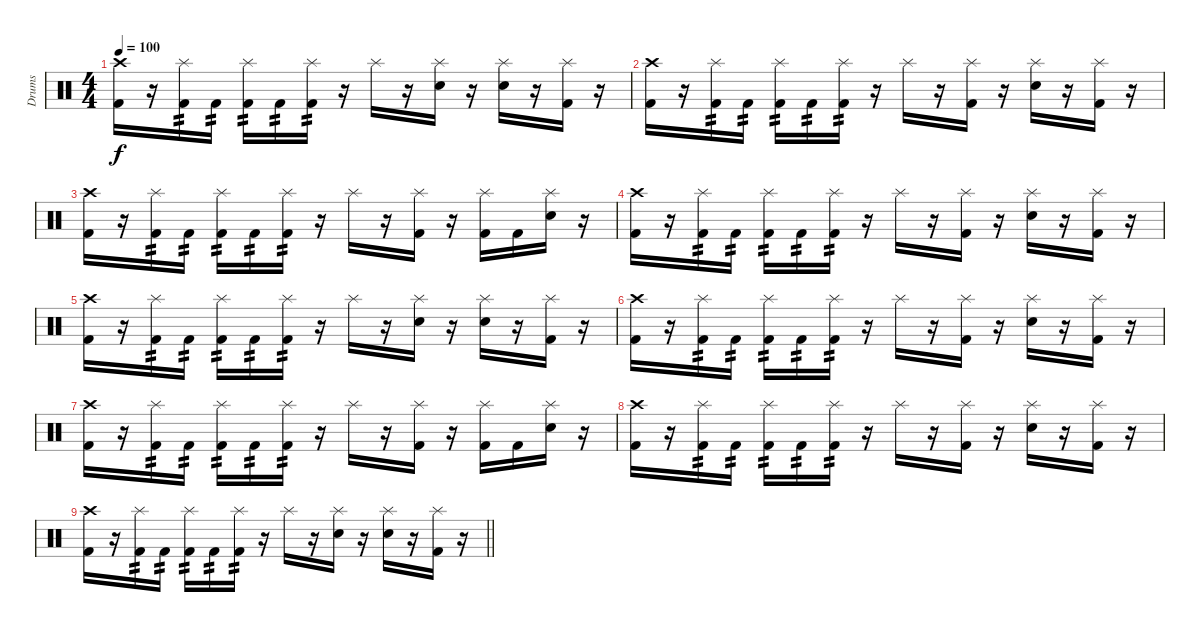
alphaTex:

\track ("Drums" "Drums") {instrument percussion}
\staff {score}
\articulation defaults
\ts (4 4)
\tempo 100
\clef neutral
\ks c
("Crash high (hit)" "Kick (hit) 2").16{dy f} r.16 ("Splash (hit)" "Kick (hit) 2").16{tp 2} "Kick (hit) 2".16{tp 2} ("Splash (hit)" "Kick (hit) 2").16{tp 2} "Kick (hit) 2".16{tp 2} ("Splash (hit)" "Kick (hit) 2").16{tp 2} r.16 "Splash (hit)".16 r.16 ("Splash (hit)" "Electric Snare (hit)").16 r.16 ("Splash (hit)" "Electric Snare (hit)").16 r.16 ("Splash (hit)" "Kick (hit) 2").16 r.16 |
("Crash high (hit)" "Kick (hit) 2").16{volume 0} r.16 ("Splash (hit)" "Kick (hit) 2").16{tp 2} "Kick (hit) 2".16{tp 2} ("Splash (hit)" "Kick (hit) 2").16{tp 2} "Kick (hit) 2".16{tp 2} ("Splash (hit)" "Kick (hit) 2").16{tp 2} r.16 "Splash (hit)".16 r.16 ("Splash (hit)" "Kick (hit) 2").16 r.16 ("Splash (hit)" "Electric Snare (hit)").16 r.16 ("Splash (hit)" "Kick (hit) 2").16 r.16 |
("Crash high (hit)" "Kick (hit) 2").16 r.16 ("Splash (hit)" "Kick (hit) 2").16{tp 2} "Kick (hit) 2".16{tp 2} ("Splash (hit)" "Kick (hit) 2").16{tp 2} "Kick (hit) 2".16{tp 2} ("Splash (hit)" "Kick (hit) 2").16{tp 2} r.16 "Splash (hit)".16 r.16 ("Splash (hit)" "Kick (hit) 2").16 r.16 ("Splash (hit)" "Kick (hit) 2").16 "Kick (hit) 2".16 ("Splash (hit)" "Electric Snare (hit)").16 r.16 |
("Crash high (hit)" "Kick (hit) 2").16 r.16 ("Splash (hit)" "Kick (hit) 2").16{tp 2} "Kick (hit) 2".16{tp 2} ("Splash (hit)" "Kick (hit) 2").16{tp 2} "Kick (hit) 2".16{tp 2} ("Splash (hit)" "Kick (hit) 2").16{tp 2} r.16 "Splash (hit)".16 r.16 ("Splash (hit)" "Kick (hit) 2").16 r.16 ("Splash (hit)" "Electric Snare (hit)").16 r.16 ("Splash (hit)" "Kick (hit) 2").16 r.16 |
("Crash high (hit)" "Kick (hit) 2").16 r.16 ("Splash (hit)" "Kick (hit) 2").16{tp 2} "Kick (hit) 2".16{tp 2} ("Splash (hit)" "Kick (hit) 2").16{tp 2} "Kick (hit) 2".16{tp 2} ("Splash (hit)" "Kick (hit) 2").16{tp 2} r.16 "Splash (hit)".16 r.16 ("Splash (hit)" "Electric Snare (hit)").16 r.16 ("Splash (hit)" "Electric Snare (hit)").16 r.16 ("Splash (hit)" "Kick (hit) 2").16 r.16 |
("Crash high (hit)" "Kick (hit) 2").16 r.16 ("Splash (hit)" "Kick (hit) 2").16{tp 2} "Kick (hit) 2".16{tp 2} ("Splash (hit)" "Kick (hit) 2").16{tp 2} "Kick (hit) 2".16{tp 2} ("Splash (hit)" "Kick (hit) 2").16{tp 2} r.16 "Splash (hit)".16 r.16 ("Splash (hit)" "Kick (hit) 2").16 r.16 ("Splash (hit)" "Electric Snare (hit)").16 r.16 ("Splash (hit)" "Kick (hit) 2").16 r.16 |
("Crash high (hit)" "Kick (hit) 2").16 r.16 ("Splash (hit)" "Kick (hit) 2").16{tp 2} "Kick (hit) 2".16{tp 2} ("Splash (hit)" "Kick (hit) 2").16{tp 2} "Kick (hit) 2".16{tp 2} ("Splash (hit)" "Kick (hit) 2").16{tp 2} r.16 "Splash (hit)".16 r.16 ("Splash (hit)" "Kick (hit) 2").16 r.16 ("Splash (hit)" "Kick (hit) 2").16 "Kick (hit) 2".16 ("Splash (hit)" "Electric Snare (hit)").16 r.16 |
("Crash high (hit)" "Kick (hit) 2").16 r.16 ("Splash (hit)" "Kick (hit) 2").16{tp 2} "Kick (hit) 2".16{tp 2} ("Splash (hit)" "Kick (hit) 2").16{tp 2} "Kick (hit) 2".16{tp 2} ("Splash (hit)" "Kick (hit) 2").16{tp 2} r.16 "Splash (hit)".16 r.16 ("Splash (hit)" "Kick (hit) 2").16 r.16 ("Splash (hit)" "Electric Snare (hit)").16 r.16 ("Splash (hit)" "Kick (hit) 2").16 r.16 |
\barLineRight lightlight
("Crash high (hit)" "Kick (hit) 2").16 r.16 ("Splash (hit)" "Kick (hit) 2").16{tp 2} "Kick (hit) 2".16{tp 2} ("Splash (hit)" "Kick (hit) 2").16{tp 2} "Kick (hit) 2".16{tp 2} ("Splash (hit)" "Kick (hit) 2").16{tp 2} r.16 "Splash (hit)".16 r.16 ("Splash (hit)" "Electric Snare (hit)").16 r.16 ("Splash (hit)" "Electric Snare (hit)").16 r.16 ("Splash (hit)" "Kick (hit) 2").16 r.16
